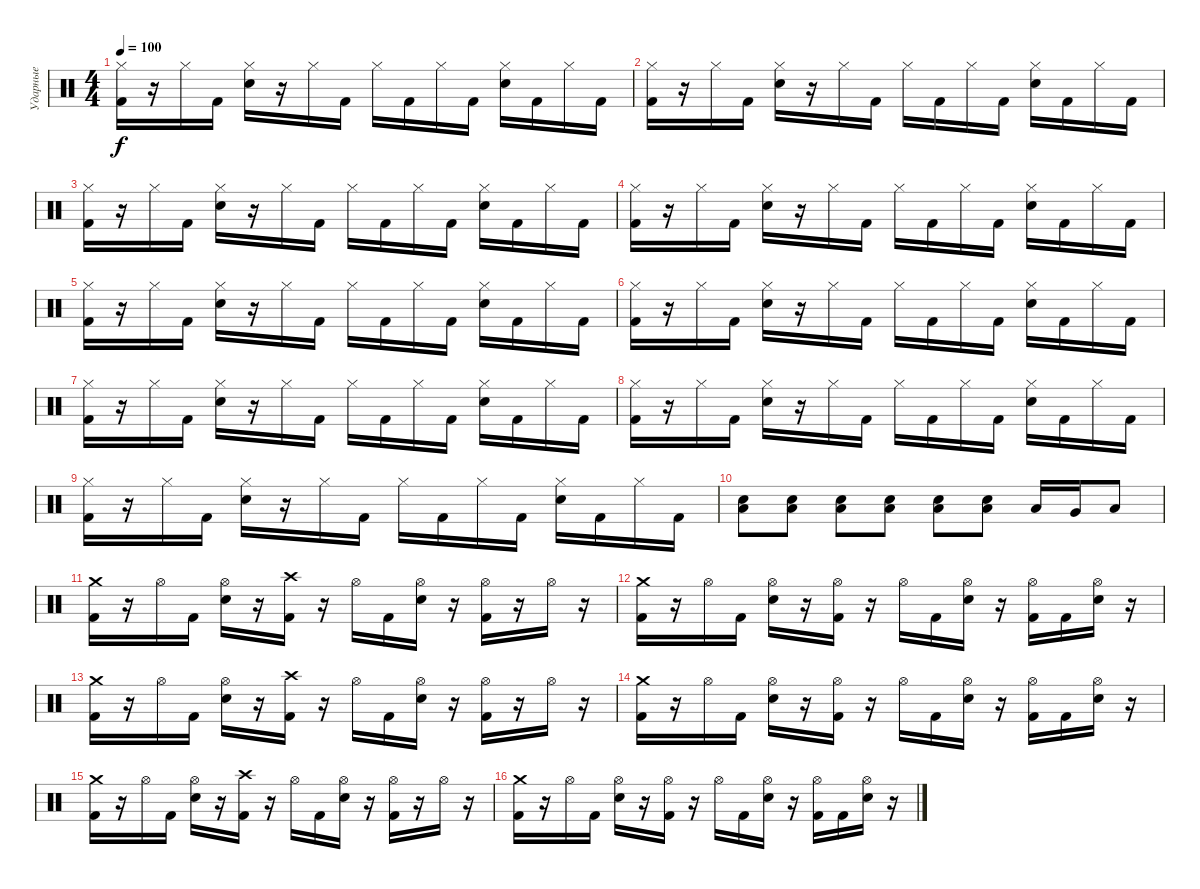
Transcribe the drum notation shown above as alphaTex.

\track ("Ударные" "Ударные") {instrument percussion}
\staff {score}
\articulation defaults
\ts (4 4)
\tempo 100
\clef neutral
\ks c
("Hi-Hat (closed)" "Kick (hit) 2").16{dy f} r.16 "Hi-Hat (closed)".16 "Kick (hit) 2".16 ("Hi-Hat (closed)" "Snare (hit) 2").16 r.16 "Hi-Hat (closed)".16 "Kick (hit) 2".16 "Hi-Hat (closed)".16 "Kick (hit) 2".16 "Hi-Hat (closed)".16 "Kick (hit) 2".16 ("Hi-Hat (closed)" "Snare (hit) 2").16 "Kick (hit) 2".16 "Hi-Hat (closed)".16 "Kick (hit) 2".16 |
("Hi-Hat (closed)" "Kick (hit) 2").16 r.16 "Hi-Hat (closed)".16 "Kick (hit) 2".16 ("Hi-Hat (closed)" "Snare (hit) 2").16 r.16 "Hi-Hat (closed)".16 "Kick (hit) 2".16 "Hi-Hat (closed)".16 "Kick (hit) 2".16 "Hi-Hat (closed)".16 "Kick (hit) 2".16 ("Hi-Hat (closed)" "Snare (hit) 2").16 "Kick (hit) 2".16 "Hi-Hat (closed)".16 "Kick (hit) 2".16 |
("Hi-Hat (closed)" "Kick (hit) 2").16 r.16 "Hi-Hat (closed)".16 "Kick (hit) 2".16 ("Hi-Hat (closed)" "Snare (hit) 2").16 r.16 "Hi-Hat (closed)".16 "Kick (hit) 2".16 "Hi-Hat (closed)".16 "Kick (hit) 2".16 "Hi-Hat (closed)".16 "Kick (hit) 2".16 ("Hi-Hat (closed)" "Snare (hit) 2").16 "Kick (hit) 2".16 "Hi-Hat (closed)".16 "Kick (hit) 2".16 |
("Hi-Hat (closed)" "Kick (hit) 2").16 r.16 "Hi-Hat (closed)".16 "Kick (hit) 2".16 ("Hi-Hat (closed)" "Snare (hit) 2").16 r.16 "Hi-Hat (closed)".16 "Kick (hit) 2".16 "Hi-Hat (closed)".16 "Kick (hit) 2".16 "Hi-Hat (closed)".16 "Kick (hit) 2".16 ("Hi-Hat (closed)" "Snare (hit) 2").16 "Kick (hit) 2".16 "Hi-Hat (closed)".16 "Kick (hit) 2".16 |
("Hi-Hat (closed)" "Kick (hit) 2").16 r.16 "Hi-Hat (closed)".16 "Kick (hit) 2".16 ("Hi-Hat (closed)" "Snare (hit) 2").16 r.16 "Hi-Hat (closed)".16 "Kick (hit) 2".16 "Hi-Hat (closed)".16 "Kick (hit) 2".16 "Hi-Hat (closed)".16 "Kick (hit) 2".16 ("Hi-Hat (closed)" "Snare (hit) 2").16 "Kick (hit) 2".16 "Hi-Hat (closed)".16 "Kick (hit) 2".16 |
("Hi-Hat (closed)" "Kick (hit) 2").16 r.16 "Hi-Hat (closed)".16 "Kick (hit) 2".16 ("Hi-Hat (closed)" "Snare (hit) 2").16 r.16 "Hi-Hat (closed)".16 "Kick (hit) 2".16 "Hi-Hat (closed)".16 "Kick (hit) 2".16 "Hi-Hat (closed)".16 "Kick (hit) 2".16 ("Hi-Hat (closed)" "Snare (hit) 2").16 "Kick (hit) 2".16 "Hi-Hat (closed)".16 "Kick (hit) 2".16 |
("Hi-Hat (closed)" "Kick (hit) 2").16 r.16 "Hi-Hat (closed)".16 "Kick (hit) 2".16 ("Hi-Hat (closed)" "Snare (hit) 2").16 r.16 "Hi-Hat (closed)".16 "Kick (hit) 2".16 "Hi-Hat (closed)".16 "Kick (hit) 2".16 "Hi-Hat (closed)".16 "Kick (hit) 2".16 ("Hi-Hat (closed)" "Snare (hit) 2").16 "Kick (hit) 2".16 "Hi-Hat (closed)".16 "Kick (hit) 2".16 |
("Hi-Hat (closed)" "Kick (hit) 2").16 r.16 "Hi-Hat (closed)".16 "Kick (hit) 2".16 ("Hi-Hat (closed)" "Snare (hit) 2").16 r.16 "Hi-Hat (closed)".16 "Kick (hit) 2".16 "Hi-Hat (closed)".16 "Kick (hit) 2".16 "Hi-Hat (closed)".16 "Kick (hit) 2".16 ("Hi-Hat (closed)" "Snare (hit) 2").16 "Kick (hit) 2".16 "Hi-Hat (closed)".16 "Kick (hit) 2".16 |
("Hi-Hat (closed)" "Kick (hit) 2").16 r.16 "Hi-Hat (closed)".16 "Kick (hit) 2".16 ("Hi-Hat (closed)" "Snare (hit) 2").16 r.16 "Hi-Hat (closed)".16 "Kick (hit) 2".16 "Hi-Hat (closed)".16 "Kick (hit) 2".16 "Hi-Hat (closed)".16 "Kick (hit) 2".16 ("Hi-Hat (closed)" "Snare (hit) 2").16 "Kick (hit) 2".16 "Hi-Hat (closed)".16 "Kick (hit) 2".16 |
("Low Floor Tom (hit)" "Snare (hit) 2").8 ("Low Floor Tom (hit)" "Snare (hit) 2").8 ("Low Floor Tom (hit)" "Snare (hit) 2").8 ("Low Floor Tom (hit)" "Snare (hit) 2").8 ("Low Floor Tom (hit)" "Snare (hit) 2").8 ("Low Floor Tom (hit)" "Snare (hit) 2").8 "Low Tom (hit)".16 "Very Low Tom (hit)".16 "Low Floor Tom (hit)".8 |
("Crash medium (hit)" "Kick (hit) 2").16 r.16 "Hi-Hat (open)".16 "Kick (hit) 2".16 ("Hi-Hat (open)" "Snare (hit) 2").16 r.16 ("Crash high (hit)" "Kick (hit) 2").16 r.16 "Hi-Hat (open)".16 "Kick (hit) 2".16 ("Hi-Hat (open)" "Snare (hit) 2").16 r.16 ("Hi-Hat (open)" "Kick (hit) 2").16 r.16 "Hi-Hat (open)".16 r.16 |
("Crash medium (hit)" "Kick (hit) 2").16 r.16 "Hi-Hat (open)".16 "Kick (hit) 2".16 ("Hi-Hat (open)" "Snare (hit) 2").16 r.16 ("Hi-Hat (open)" "Kick (hit) 2").16 r.16 "Hi-Hat (open)".16 "Kick (hit) 2".16 ("Hi-Hat (open)" "Snare (hit) 2").16 r.16 ("Hi-Hat (open)" "Kick (hit) 2").16 "Kick (hit) 2".16 ("Hi-Hat (open)" "Snare (hit) 2").16 r.16 |
("Crash medium (hit)" "Kick (hit) 2").16 r.16 "Hi-Hat (open)".16 "Kick (hit) 2".16 ("Hi-Hat (open)" "Snare (hit) 2").16 r.16 ("Crash high (hit)" "Kick (hit) 2").16 r.16 "Hi-Hat (open)".16 "Kick (hit) 2".16 ("Hi-Hat (open)" "Snare (hit) 2").16 r.16 ("Hi-Hat (open)" "Kick (hit) 2").16 r.16 "Hi-Hat (open)".16 r.16 |
("Crash medium (hit)" "Kick (hit) 2").16 r.16 "Hi-Hat (open)".16 "Kick (hit) 2".16 ("Hi-Hat (open)" "Snare (hit) 2").16 r.16 ("Hi-Hat (open)" "Kick (hit) 2").16 r.16 "Hi-Hat (open)".16 "Kick (hit) 2".16 ("Hi-Hat (open)" "Snare (hit) 2").16 r.16 ("Hi-Hat (open)" "Kick (hit) 2").16 "Kick (hit) 2".16 ("Hi-Hat (open)" "Snare (hit) 2").16 r.16 |
("Crash medium (hit)" "Kick (hit) 2").16 r.16 "Hi-Hat (open)".16 "Kick (hit) 2".16 ("Hi-Hat (open)" "Snare (hit) 2").16 r.16 ("Crash high (hit)" "Kick (hit) 2").16 r.16 "Hi-Hat (open)".16 "Kick (hit) 2".16 ("Hi-Hat (open)" "Snare (hit) 2").16 r.16 ("Hi-Hat (open)" "Kick (hit) 2").16 r.16 "Hi-Hat (open)".16 r.16 |
("Crash medium (hit)" "Kick (hit) 2").16 r.16 "Hi-Hat (open)".16 "Kick (hit) 2".16 ("Hi-Hat (open)" "Snare (hit) 2").16 r.16 ("Hi-Hat (open)" "Kick (hit) 2").16 r.16 "Hi-Hat (open)".16 "Kick (hit) 2".16 ("Hi-Hat (open)" "Snare (hit) 2").16 r.16 ("Hi-Hat (open)" "Kick (hit) 2").16 "Kick (hit) 2".16 ("Hi-Hat (open)" "Snare (hit) 2").16 r.16
